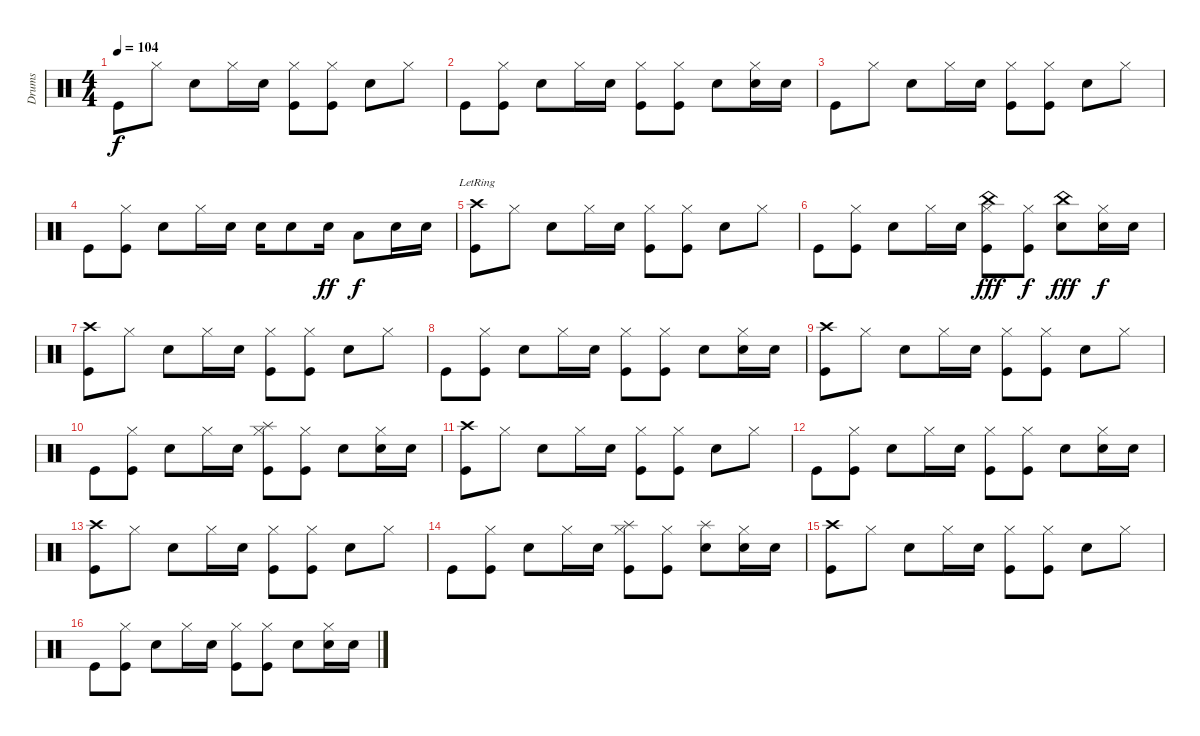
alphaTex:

\track ("Drums" "Drums") {instrument percussion}
\staff {score}
\articulation defaults
\ts (4 4)
\tempo 104
\clef neutral
\ks c "Kick (hit)".8{dy f} "Hi-Hat (closed)".8 "Snare (hit) 2".8 "Hi-Hat (closed)".16 "Snare (hit) 2".16
("Hi-Hat (closed)" "Kick (hit)").8 ("Hi-Hat (closed)" "Kick (hit)").8 "Snare (hit) 2".8 "Hi-Hat (closed)".8 |
"Kick (hit)".8 ("Hi-Hat (closed)" "Kick (hit)").8 "Snare (hit) 2".8 "Hi-Hat (closed)".16 "Snare (hit) 2".16 ("Hi-Hat (closed)" "Kick (hit)").8 ("Hi-Hat (closed)" "Kick (hit)").8 "Snare (hit) 2".8 ("Hi-Hat (closed)" "Snare (hit) 2").16 "Snare (hit) 2".16 |
"Kick (hit)".8 "Hi-Hat (closed)".8 "Snare (hit) 2".8 "Hi-Hat (closed)".16 "Snare (hit) 2".16 ("Hi-Hat (closed)" "Kick (hit)").8 ("Hi-Hat (closed)" "Kick (hit)").8 "Snare (hit) 2".8 "Hi-Hat (closed)".8 |
"Kick (hit)".8 ("Hi-Hat (closed)" "Kick (hit)").8 "Snare (hit) 2".8 "Hi-Hat (closed)".16 "Snare (hit) 2".16 "Snare (hit) 2".16 "Snare (hit) 2".8 "Snare (hit) 2".16{dy ff} "Low Tom (hit)".8{dy f} "Snare (hit) 2".16 "Snare (hit) 2".16 |
("Crash high (hit)"{lr} "Kick (hit)").8 "Hi-Hat (closed)".8 "Snare (hit) 2".8 "Hi-Hat (closed)".16 "Snare (hit) 2".16 ("Hi-Hat (closed)" "Kick (hit)").8 ("Hi-Hat (closed)" "Kick (hit)").8 "Snare (hit) 2".8 "Hi-Hat (closed)".8 |
"Kick (hit)".8 ("Hi-Hat (closed)" "Kick (hit)").8 "Snare (hit) 2".8 "Hi-Hat (closed)".16 "Snare (hit) 2".16 ("China (hit)" "Hi-Hat (closed)" "Kick (hit)").8{dy fff} ("Hi-Hat (closed)" "Kick (hit)").8{dy f} ("China (hit)" "Snare (hit) 2").8{dy fff} ("Hi-Hat (closed)" "Snare (hit) 2").16{dy f} "Snare (hit) 2".16 |
("Crash high (hit)" "Kick (hit)").8 "Hi-Hat (closed)".8 "Snare (hit) 2".8 "Hi-Hat (closed)".16 "Snare (hit) 2".16 ("Hi-Hat (closed)" "Kick (hit)").8 ("Hi-Hat (closed)" "Kick (hit)").8 "Snare (hit) 2".8 "Hi-Hat (closed)".8 |
"Kick (hit)".8 ("Hi-Hat (closed)" "Kick (hit)").8 "Snare (hit) 2".8 "Hi-Hat (closed)".16 "Snare (hit) 2".16 ("Hi-Hat (closed)" "Kick (hit)").8 ("Hi-Hat (closed)" "Kick (hit)").8 "Snare (hit) 2".8 ("Hi-Hat (closed)" "Snare (hit) 2").16 "Snare (hit) 2".16 |
("Crash high (hit)" "Kick (hit)").8 "Hi-Hat (closed)".8 "Snare (hit) 2".8 "Hi-Hat (closed)".16 "Snare (hit) 2".16 ("Hi-Hat (closed)" "Kick (hit)").8 ("Hi-Hat (closed)" "Kick (hit)").8 "Snare (hit) 2".8 "Hi-Hat (closed)".8 |
"Kick (hit)".8 ("Hi-Hat (closed)" "Kick (hit)").8 "Snare (hit) 2".8 "Hi-Hat (closed)".16 "Snare (hit) 2".16 ("Splash (hit)" "Hi-Hat (closed)" "Kick (hit)").8 ("Hi-Hat (closed)" "Kick (hit)").8 "Snare (hit) 2".8 ("Hi-Hat (closed)" "Snare (hit) 2").16 "Snare (hit) 2".16 |
("Crash high (hit)" "Kick (hit)").8 "Hi-Hat (closed)".8 "Snare (hit) 2".8 "Hi-Hat (closed)".16 "Snare (hit) 2".16 ("Hi-Hat (closed)" "Kick (hit)").8 ("Hi-Hat (closed)" "Kick (hit)").8 "Snare (hit) 2".8 "Hi-Hat (closed)".8 |
"Kick (hit)".8 ("Hi-Hat (closed)" "Kick (hit)").8 "Snare (hit) 2".8 "Hi-Hat (closed)".16 "Snare (hit) 2".16 ("Hi-Hat (closed)" "Kick (hit)").8 ("Hi-Hat (closed)" "Kick (hit)").8 "Snare (hit) 2".8 ("Hi-Hat (closed)" "Snare (hit) 2").16 "Snare (hit) 2".16 |
("Crash high (hit)" "Kick (hit)").8 "Hi-Hat (closed)".8 "Snare (hit) 2".8 "Hi-Hat (closed)".16 "Snare (hit) 2".16 ("Hi-Hat (closed)" "Kick (hit)").8 ("Hi-Hat (closed)" "Kick (hit)").8 "Snare (hit) 2".8 "Hi-Hat (closed)".8 |
"Kick (hit)".8 ("Hi-Hat (closed)" "Kick (hit)").8 "Snare (hit) 2".8 "Hi-Hat (closed)".16 "Snare (hit) 2".16 ("Splash (hit)" "Hi-Hat (closed)" "Kick (hit)").8 ("Hi-Hat (closed)" "Kick (hit)").8 ("Splash (hit)" "Snare (hit) 2").8 ("Hi-Hat (closed)" "Snare (hit) 2").16 "Snare (hit) 2".16 |
("Crash high (hit)" "Kick (hit)").8 "Hi-Hat (closed)".8 "Snare (hit) 2".8 "Hi-Hat (closed)".16 "Snare (hit) 2".16 ("Hi-Hat (closed)" "Kick (hit)").8 ("Hi-Hat (closed)" "Kick (hit)").8 "Snare (hit) 2".8 "Hi-Hat (closed)".8 |
"Kick (hit)".8 ("Hi-Hat (closed)" "Kick (hit)").8 "Snare (hit) 2".8 "Hi-Hat (closed)".16 "Snare (hit) 2".16 ("Hi-Hat (closed)" "Kick (hit)").8 ("Hi-Hat (closed)" "Kick (hit)").8 "Snare (hit) 2".8 ("Hi-Hat (closed)" "Snare (hit) 2").16 "Snare (hit) 2".16
